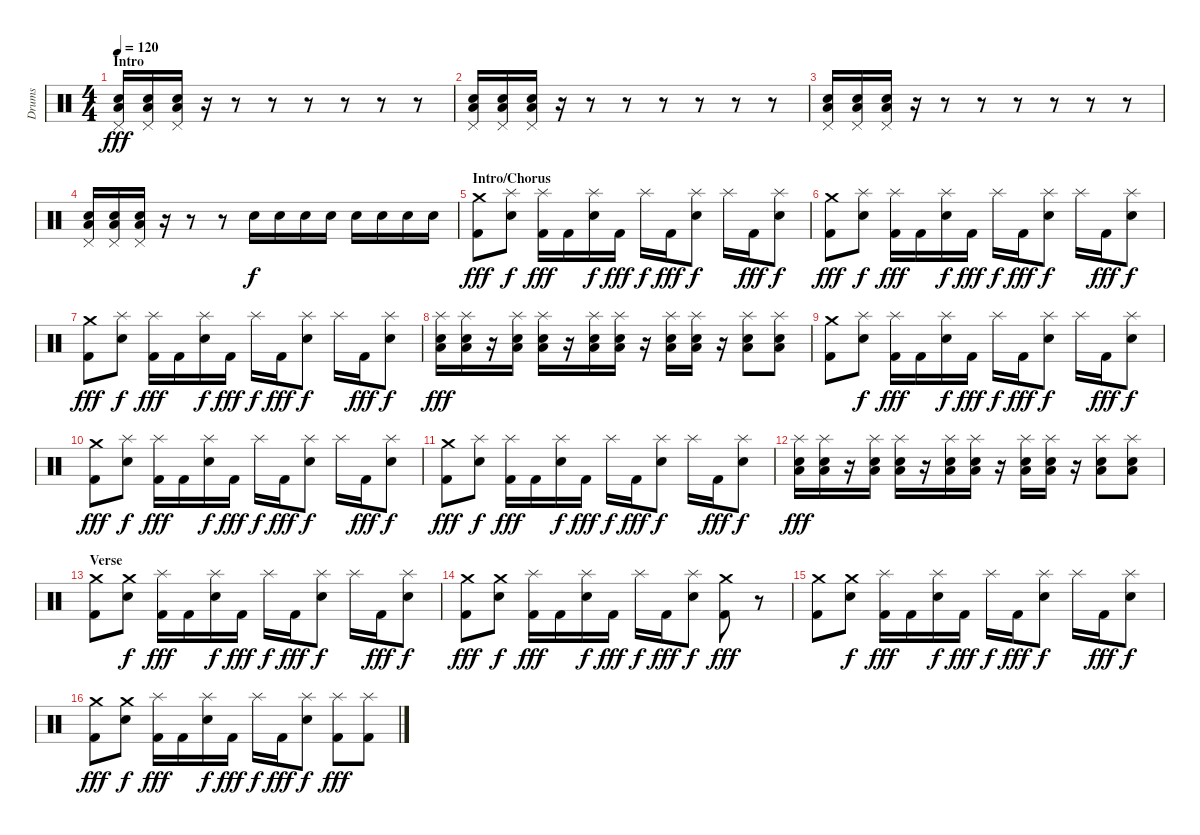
\track ("Drums" "Drums") {instrument percussion}
\staff {score}
\articulation defaults
\ts (4 4)
\section ("" "Intro")
\tempo 120
\clef neutral
\ks c
("Pedal Hi-Hat (hit)" "Electric Snare (hit)" "Low Floor Tom (hit)").16{dy fff} ("Pedal Hi-Hat (hit)" "Electric Snare (hit)" "Low Floor Tom (hit)").16 ("Pedal Hi-Hat (hit)" "Electric Snare (hit)" "Low Floor Tom (hit)").16 r.16 r.8 r.8 r.8 r.8 r.8 r.8 |
("Pedal Hi-Hat (hit)" "Electric Snare (hit)" "Low Floor Tom (hit)").16 ("Pedal Hi-Hat (hit)" "Electric Snare (hit)" "Low Floor Tom (hit)").16 ("Pedal Hi-Hat (hit)" "Electric Snare (hit)" "Low Floor Tom (hit)").16 r.16 r.8 r.8 r.8 r.8 r.8 r.8 |
("Pedal Hi-Hat (hit)" "Electric Snare (hit)" "Low Floor Tom (hit)").16 ("Pedal Hi-Hat (hit)" "Electric Snare (hit)" "Low Floor Tom (hit)").16 ("Pedal Hi-Hat (hit)" "Electric Snare (hit)" "Low Floor Tom (hit)").16 r.16 r.8 r.8 r.8 r.8 r.8 r.8 |
("Pedal Hi-Hat (hit)" "Electric Snare (hit)" "Low Floor Tom (hit)").16 ("Pedal Hi-Hat (hit)" "Electric Snare (hit)" "Low Floor Tom (hit)").16 ("Pedal Hi-Hat (hit)" "Electric Snare (hit)" "Low Floor Tom (hit)").16 r.16 r.8 r.8 "Electric Snare (hit)".16{dy f} "Electric Snare (hit)".16 "Electric Snare (hit)".16 "Electric Snare (hit)".16 "Electric Snare (hit)".16 "Electric Snare (hit)".16 "Electric Snare (hit)".16 "Electric Snare (hit)".16 |
\section ("" "Intro/Chorus")
("Crash medium (hit)" "Kick (hit) 2").8{dy fff} ("Splash (hit)" "Electric Snare (hit)").8{dy f} ("Splash (hit)" "Kick (hit) 2").16{dy fff} "Kick (hit) 2".16 ("Splash (hit)" "Electric Snare (hit)").16{dy f} "Kick (hit) 2".16{dy fff} "Splash (hit)".16{dy f} "Kick (hit) 2".16{dy fff} ("Splash (hit)" "Electric Snare (hit)").8{dy f} "Splash (hit)".16 "Kick (hit) 2".16{dy fff} ("Splash (hit)" "Electric Snare (hit)").8{dy f} |
("Crash medium (hit)" "Kick (hit) 2").8{dy fff} ("Splash (hit)" "Electric Snare (hit)").8{dy f} ("Splash (hit)" "Kick (hit) 2").16{dy fff} "Kick (hit) 2".16 ("Splash (hit)" "Electric Snare (hit)").16{dy f} "Kick (hit) 2".16{dy fff} "Splash (hit)".16{dy f} "Kick (hit) 2".16{dy fff} ("Splash (hit)" "Electric Snare (hit)").8{dy f} "Splash (hit)".16 "Kick (hit) 2".16{dy fff} ("Splash (hit)" "Electric Snare (hit)").8{dy f} |
("Crash medium (hit)" "Kick (hit) 2").8{dy fff} ("Splash (hit)" "Electric Snare (hit)").8{dy f} ("Splash (hit)" "Kick (hit) 2").16{dy fff} "Kick (hit) 2".16 ("Splash (hit)" "Electric Snare (hit)").16{dy f} "Kick (hit) 2".16{dy fff} "Splash (hit)".16{dy f} "Kick (hit) 2".16{dy fff} ("Splash (hit)" "Electric Snare (hit)").8{dy f} "Splash (hit)".16 "Kick (hit) 2".16{dy fff} ("Splash (hit)" "Electric Snare (hit)").8{dy f} |
("Splash (hit)" "Electric Snare (hit)" "Low Floor Tom (hit)").16{dy fff} ("Splash (hit)" "Electric Snare (hit)" "Low Floor Tom (hit)").16 r.16 ("Splash (hit)" "Electric Snare (hit)" "Low Floor Tom (hit)").16 ("Splash (hit)" "Electric Snare (hit)" "Low Floor Tom (hit)").16 r.16 ("Splash (hit)" "Electric Snare (hit)" "Low Floor Tom (hit)").16 ("Splash (hit)" "Electric Snare (hit)" "Low Floor Tom (hit)").16 r.16 ("Splash (hit)" "Electric Snare (hit)" "Low Floor Tom (hit)").16 ("Splash (hit)" "Electric Snare (hit)" "Low Floor Tom (hit)").16 r.16 ("Splash (hit)" "Electric Snare (hit)" "Low Floor Tom (hit)").8 ("Splash (hit)" "Electric Snare (hit)" "Low Floor Tom (hit)").8 |
("Crash medium (hit)" "Kick (hit) 2").8 ("Splash (hit)" "Electric Snare (hit)").8{dy f} ("Splash (hit)" "Kick (hit) 2").16{dy fff} "Kick (hit) 2".16 ("Splash (hit)" "Electric Snare (hit)").16{dy f} "Kick (hit) 2".16{dy fff} "Splash (hit)".16{dy f} "Kick (hit) 2".16{dy fff} ("Splash (hit)" "Electric Snare (hit)").8{dy f} "Splash (hit)".16 "Kick (hit) 2".16{dy fff} ("Splash (hit)" "Electric Snare (hit)").8{dy f} |
("Crash medium (hit)" "Kick (hit) 2").8{dy fff} ("Splash (hit)" "Electric Snare (hit)").8{dy f} ("Splash (hit)" "Kick (hit) 2").16{dy fff} "Kick (hit) 2".16 ("Splash (hit)" "Electric Snare (hit)").16{dy f} "Kick (hit) 2".16{dy fff} "Splash (hit)".16{dy f} "Kick (hit) 2".16{dy fff} ("Splash (hit)" "Electric Snare (hit)").8{dy f} "Splash (hit)".16 "Kick (hit) 2".16{dy fff} ("Splash (hit)" "Electric Snare (hit)").8{dy f} |
("Crash medium (hit)" "Kick (hit) 2").8{dy fff} ("Splash (hit)" "Electric Snare (hit)").8{dy f} ("Splash (hit)" "Kick (hit) 2").16{dy fff} "Kick (hit) 2".16 ("Splash (hit)" "Electric Snare (hit)").16{dy f} "Kick (hit) 2".16{dy fff} "Splash (hit)".16{dy f} "Kick (hit) 2".16{dy fff} ("Splash (hit)" "Electric Snare (hit)").8{dy f} "Splash (hit)".16 "Kick (hit) 2".16{dy fff} ("Splash (hit)" "Electric Snare (hit)").8{dy f} |
("Splash (hit)" "Electric Snare (hit)" "Low Floor Tom (hit)").16{dy fff} ("Splash (hit)" "Electric Snare (hit)" "Low Floor Tom (hit)").16 r.16 ("Splash (hit)" "Electric Snare (hit)" "Low Floor Tom (hit)").16 ("Splash (hit)" "Electric Snare (hit)" "Low Floor Tom (hit)").16 r.16 ("Splash (hit)" "Electric Snare (hit)" "Low Floor Tom (hit)").16 ("Splash (hit)" "Electric Snare (hit)" "Low Floor Tom (hit)").16 r.16 ("Splash (hit)" "Electric Snare (hit)" "Low Floor Tom (hit)").16 ("Splash (hit)" "Electric Snare (hit)" "Low Floor Tom (hit)").16 r.16 ("Splash (hit)" "Electric Snare (hit)" "Low Floor Tom (hit)").8 ("Splash (hit)" "Electric Snare (hit)" "Low Floor Tom (hit)").8 |
\section ("" "Verse")
("Crash medium (hit)" "Kick (hit) 2").8 ("Crash medium (hit)" "Electric Snare (hit)").8{dy f} ("Splash (hit)" "Kick (hit) 2").16{dy fff} "Kick (hit) 2".16 ("Splash (hit)" "Electric Snare (hit)").16{dy f} "Kick (hit) 2".16{dy fff} "Splash (hit)".16{dy f} "Kick (hit) 2".16{dy fff} ("Splash (hit)" "Electric Snare (hit)").8{dy f} "Splash (hit)".16 "Kick (hit) 2".16{dy fff} ("Splash (hit)" "Electric Snare (hit)").8{dy f} |
("Crash medium (hit)" "Kick (hit) 2").8{dy fff} ("Crash medium (hit)" "Electric Snare (hit)").8{dy f} ("Splash (hit)" "Kick (hit) 2").16{dy fff} "Kick (hit) 2".16 ("Splash (hit)" "Electric Snare (hit)").16{dy f} "Kick (hit) 2".16{dy fff} "Splash (hit)".16{dy f} "Kick (hit) 2".16{dy fff} ("Splash (hit)" "Electric Snare (hit)").8{dy f} ("Crash medium (hit)" "Kick (hit) 2").8{dy fff} r.8 |
("Crash medium (hit)" "Kick (hit) 2").8 ("Crash medium (hit)" "Electric Snare (hit)").8{dy f} ("Splash (hit)" "Kick (hit) 2").16{dy fff} "Kick (hit) 2".16 ("Splash (hit)" "Electric Snare (hit)").16{dy f} "Kick (hit) 2".16{dy fff} "Splash (hit)".16{dy f} "Kick (hit) 2".16{dy fff} ("Splash (hit)" "Electric Snare (hit)").8{dy f} "Splash (hit)".16 "Kick (hit) 2".16{dy fff} ("Splash (hit)" "Electric Snare (hit)").8{dy f} |
("Crash medium (hit)" "Kick (hit) 2").8{dy fff} ("Crash medium (hit)" "Electric Snare (hit)").8{dy f} ("Splash (hit)" "Kick (hit) 2").16{dy fff} "Kick (hit) 2".16 ("Splash (hit)" "Electric Snare (hit)").16{dy f} "Kick (hit) 2".16{dy fff} "Splash (hit)".16{dy f} "Kick (hit) 2".16{dy fff} ("Splash (hit)" "Electric Snare (hit)").8{dy f} ("Splash (hit)" "Kick (hit) 2").8{dy fff} ("Splash (hit)" "Kick (hit) 2").8
